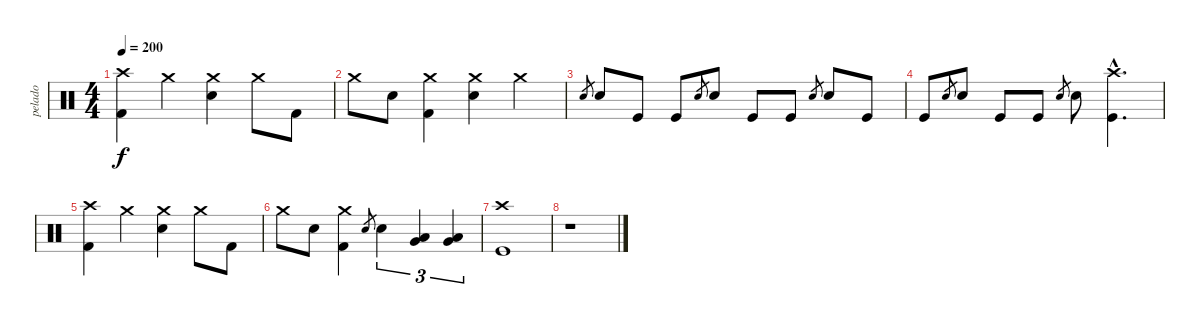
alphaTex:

\track ("pelado" "pelado") {instrument percussion}
\staff {score}
\articulation defaults
\ts (4 4)
\tempo 200
\clef neutral
\ks c
("Crash high (hit)" "Kick (hit) 2").4{dy f} "Crash medium (hit)".4 ("Crash medium (hit)" "Electric Snare (hit)").4 "Crash medium (hit)".8 "Kick (hit) 2".8 |
"Crash medium (hit)".8 "Electric Snare (hit)".8 ("Crash medium (hit)" "Kick (hit) 2").4 ("Crash medium (hit)" "Electric Snare (hit)").4 "Crash medium (hit)".4 |
"Electric Snare (hit)".8{gr} "Electric Snare (hit)".8 "Kick (hit)".8 "Kick (hit)".8 "Electric Snare (hit)".8{gr} "Electric Snare (hit)".8 "Kick (hit)".8 "Kick (hit)".8 "Electric Snare (hit)".8{gr} "Electric Snare (hit)".8 "Kick (hit)".8 |
"Kick (hit)".8 "Electric Snare (hit)".8{gr} "Electric Snare (hit)".8 "Kick (hit)".8 "Kick (hit)".8 "Electric Snare (hit)".8{gr} "Electric Snare (hit)".8 ("Crash high (hit)"{hac} "Kick (hit)"{hac}).4{d} |
("Crash high (hit)" "Kick (hit) 2").4 "Crash medium (hit)".4 ("Crash medium (hit)" "Electric Snare (hit)").4 "Crash medium (hit)".8 "Kick (hit) 2".8 |
"Crash medium (hit)".8 "Electric Snare (hit)".8 ("Crash medium (hit)" "Kick (hit) 2").4 "Electric Snare (hit)".8{gr} "Electric Snare (hit)".4{tu (3 2)} ("Low Tom (hit)" "Very Low Tom (hit)").4{tu (3 2)} ("Low Tom (hit)" "Very Low Tom (hit)").4{tu (3 2)} |
("Crash high (hit)" "Kick (hit)").1 |
r.1
